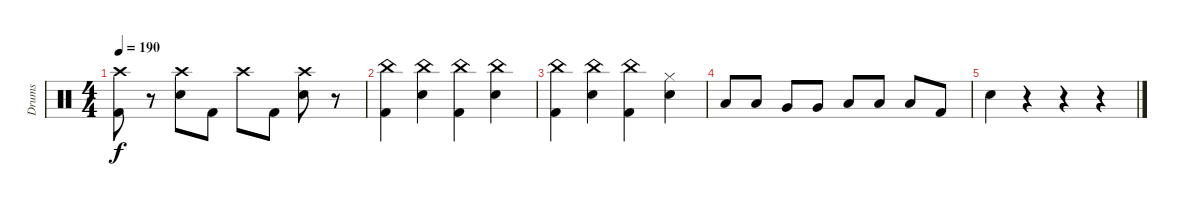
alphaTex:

\track ("Drums" "Drums") {instrument percussion}
\staff {score}
\articulation defaults
\ts (4 4)
\tempo 190
\clef neutral
\ks c
("Crash high (hit)" "Kick (hit) 2").8{dy f} r.8 ("Crash high (hit)" "Snare (hit) 2").8 "Kick (hit) 2".8 "Crash high (hit)".8 "Kick (hit) 2".8 ("Crash high (hit)" "Snare (hit) 2").8 r.8 |
("China (hit)" "Kick (hit) 2").4 ("China (hit)" "Snare (hit) 2").4 ("China (hit)" "Kick (hit) 2").4 ("China (hit)" "Snare (hit) 2").4 |
("China (hit)" "Kick (hit) 2").4 ("China (hit)" "Snare (hit) 2").4 ("China (hit)" "Kick (hit) 2").4 ("Hi-Hat (closed)" "Snare (hit) 2").4 |
"Low Floor Tom (hit)".8 "Low Floor Tom (hit)".8 "Very Low Tom (hit)".8 "Very Low Tom (hit)".8 "Low Tom (hit)".8 "Low Tom (hit)".8 "Low Tom (hit)".8 "Kick (hit) 2".8 |
"Snare (hit) 2".4 r.4 r.4 r.4
